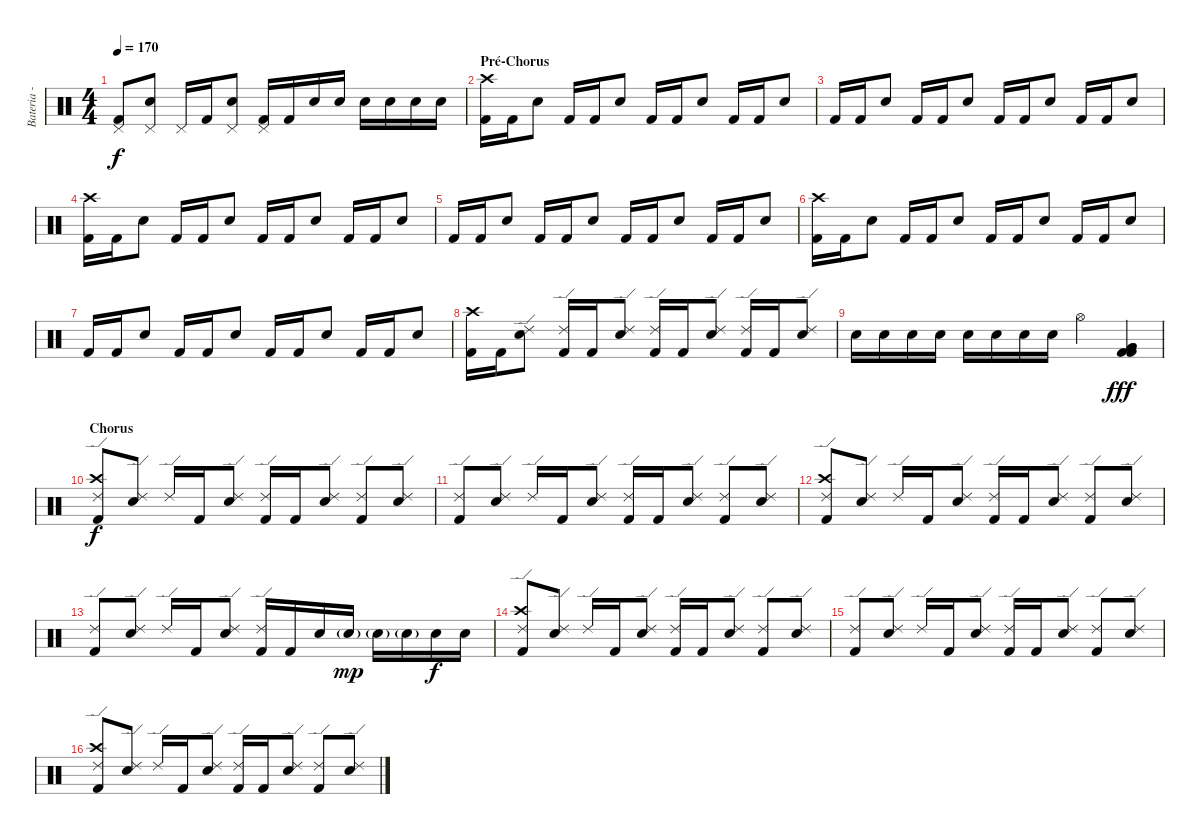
\track ("Bateria - Larzon" "Bateria - ") {instrument percussion}
\staff {score}
\articulation defaults
\ts (4 4)
\tempo 170
\clef neutral
\ks c
("Kick (hit) 2" "Pedal Hi-Hat (hit)").8{dy f} ("Snare (hit) 2" "Pedal Hi-Hat (hit)").8 "Pedal Hi-Hat (hit)".16 "Kick (hit) 2".16 ("Snare (hit) 2" "Pedal Hi-Hat (hit)").8 ("Kick (hit) 2" "Pedal Hi-Hat (hit)").16 "Kick (hit) 2".16 "Snare (hit) 2".16 "Snare (hit) 2".16 "Snare (hit) 2".16 "Snare (hit) 2".16 "Snare (hit) 2".16 "Snare (hit) 2".16 |
\section ("" "Pré-Chorus")
("Kick (hit) 2" "Crash high (hit)").16 "Kick (hit) 2".16 "Snare (hit) 2".8 "Kick (hit) 2".16 "Kick (hit) 2".16 "Snare (hit) 2".8 "Kick (hit) 2".16 "Kick (hit) 2".16 "Snare (hit) 2".8 "Kick (hit) 2".16 "Kick (hit) 2".16 "Snare (hit) 2".8 |
"Kick (hit) 2".16 "Kick (hit) 2".16 "Snare (hit) 2".8 "Kick (hit) 2".16 "Kick (hit) 2".16 "Snare (hit) 2".8 "Kick (hit) 2".16 "Kick (hit) 2".16 "Snare (hit) 2".8 "Kick (hit) 2".16 "Kick (hit) 2".16 "Snare (hit) 2".8 |
("Kick (hit) 2" "Crash high (hit)").16 "Kick (hit) 2".16 "Snare (hit) 2".8 "Kick (hit) 2".16 "Kick (hit) 2".16 "Snare (hit) 2".8 "Kick (hit) 2".16 "Kick (hit) 2".16 "Snare (hit) 2".8 "Kick (hit) 2".16 "Kick (hit) 2".16 "Snare (hit) 2".8 |
"Kick (hit) 2".16 "Kick (hit) 2".16 "Snare (hit) 2".8 "Kick (hit) 2".16 "Kick (hit) 2".16 "Snare (hit) 2".8 "Kick (hit) 2".16 "Kick (hit) 2".16 "Snare (hit) 2".8 "Kick (hit) 2".16 "Kick (hit) 2".16 "Snare (hit) 2".8 |
("Kick (hit) 2" "Crash high (hit)").16 "Kick (hit) 2".16 "Snare (hit) 2".8 "Kick (hit) 2".16 "Kick (hit) 2".16 "Snare (hit) 2".8 "Kick (hit) 2".16 "Kick (hit) 2".16 "Snare (hit) 2".8 "Kick (hit) 2".16 "Kick (hit) 2".16 "Snare (hit) 2".8 |
"Kick (hit) 2".16 "Kick (hit) 2".16 "Snare (hit) 2".8 "Kick (hit) 2".16 "Kick (hit) 2".16 "Snare (hit) 2".8 "Kick (hit) 2".16 "Kick (hit) 2".16 "Snare (hit) 2".8 "Kick (hit) 2".16 "Kick (hit) 2".16 "Snare (hit) 2".8 |
("Kick (hit) 2" "Crash high (hit)").16 "Kick (hit) 2".16 ("Snare (hit) 2" "Ride (edge) 2").8 ("Kick (hit) 2" "Ride (edge) 2").16 "Kick (hit) 2".16 ("Snare (hit) 2" "Ride (edge) 2").8 ("Kick (hit) 2" "Ride (edge) 2").16 "Kick (hit) 2".16 ("Snare (hit) 2" "Ride (edge) 2").8 ("Kick (hit) 2" "Ride (edge) 2").16 "Kick (hit) 2".16 ("Snare (hit) 2" "Ride (edge) 2").8 |
"Snare (hit) 2".16 "Snare (hit) 2".16 "Snare (hit) 2".16 "Snare (hit) 2".16 "Snare (hit) 2".16 "Snare (hit) 2".16 "Snare (hit) 2".16 "Snare (hit) 2".16 "Hi-Hat (open)".4 ("Kick (hit) 2" "Very Low Tom (hit)" "Very Low Tom (hit)" "Kick (hit) 2").4{dy fff} |
\section ("" "Chorus")
("Kick (hit) 2" "Crash high (hit)" "Ride (edge) 2").8{dy f} ("Snare (hit) 2" "Ride (edge) 2").8 "Ride (edge) 2".16 "Kick (hit) 2".16 ("Snare (hit) 2" "Ride (edge) 2").8 ("Kick (hit) 2" "Ride (edge) 2").16 "Kick (hit) 2".16 ("Snare (hit) 2" "Ride (edge) 2").8 ("Kick (hit) 2" "Ride (edge) 2").8 ("Snare (hit) 2" "Ride (edge) 2").8 |
("Kick (hit) 2" "Ride (edge) 2").8 ("Snare (hit) 2" "Ride (edge) 2").8 "Ride (edge) 2".16 "Kick (hit) 2".16 ("Snare (hit) 2" "Ride (edge) 2").8 ("Kick (hit) 2" "Ride (edge) 2").16 "Kick (hit) 2".16 ("Snare (hit) 2" "Ride (edge) 2").8 ("Kick (hit) 2" "Ride (edge) 2").8 ("Snare (hit) 2" "Ride (edge) 2").8 |
("Kick (hit) 2" "Crash high (hit)" "Ride (edge) 2").8 ("Snare (hit) 2" "Ride (edge) 2").8 "Ride (edge) 2".16 "Kick (hit) 2".16 ("Snare (hit) 2" "Ride (edge) 2").8 ("Kick (hit) 2" "Ride (edge) 2").16 "Kick (hit) 2".16 ("Snare (hit) 2" "Ride (edge) 2").8 ("Kick (hit) 2" "Ride (edge) 2").8 ("Snare (hit) 2" "Ride (edge) 2").8 |
("Kick (hit) 2" "Ride (edge) 2").8 ("Snare (hit) 2" "Ride (edge) 2").8 "Ride (edge) 2".16 "Kick (hit) 2".16 ("Snare (hit) 2" "Ride (edge) 2").8 ("Kick (hit) 2" "Ride (edge) 2").16 "Kick (hit) 2".16 "Snare (hit) 2".16 "Snare (hit) 2"{g}.16{dy mp} "Snare (hit) 2"{g}.16 "Snare (hit) 2"{g}.16 "Snare (hit) 2".16{dy f} "Snare (hit) 2".16 |
("Kick (hit) 2" "Crash high (hit)" "Ride (edge) 2").8 ("Snare (hit) 2" "Ride (edge) 2").8 "Ride (edge) 2".16 "Kick (hit) 2".16 ("Snare (hit) 2" "Ride (edge) 2").8 ("Kick (hit) 2" "Ride (edge) 2").16 "Kick (hit) 2".16 ("Snare (hit) 2" "Ride (edge) 2").8 ("Kick (hit) 2" "Ride (edge) 2").8 ("Snare (hit) 2" "Ride (edge) 2").8 |
("Kick (hit) 2" "Ride (edge) 2").8 ("Snare (hit) 2" "Ride (edge) 2").8 "Ride (edge) 2".16 "Kick (hit) 2".16 ("Snare (hit) 2" "Ride (edge) 2").8 ("Kick (hit) 2" "Ride (edge) 2").16 "Kick (hit) 2".16 ("Snare (hit) 2" "Ride (edge) 2").8 ("Kick (hit) 2" "Ride (edge) 2").8 ("Snare (hit) 2" "Ride (edge) 2").8 |
("Kick (hit) 2" "Crash high (hit)" "Ride (edge) 2").8 ("Snare (hit) 2" "Ride (edge) 2").8 "Ride (edge) 2".16 "Kick (hit) 2".16 ("Snare (hit) 2" "Ride (edge) 2").8 ("Kick (hit) 2" "Ride (edge) 2").16 "Kick (hit) 2".16 ("Snare (hit) 2" "Ride (edge) 2").8 ("Kick (hit) 2" "Ride (edge) 2").8 ("Snare (hit) 2" "Ride (edge) 2").8
